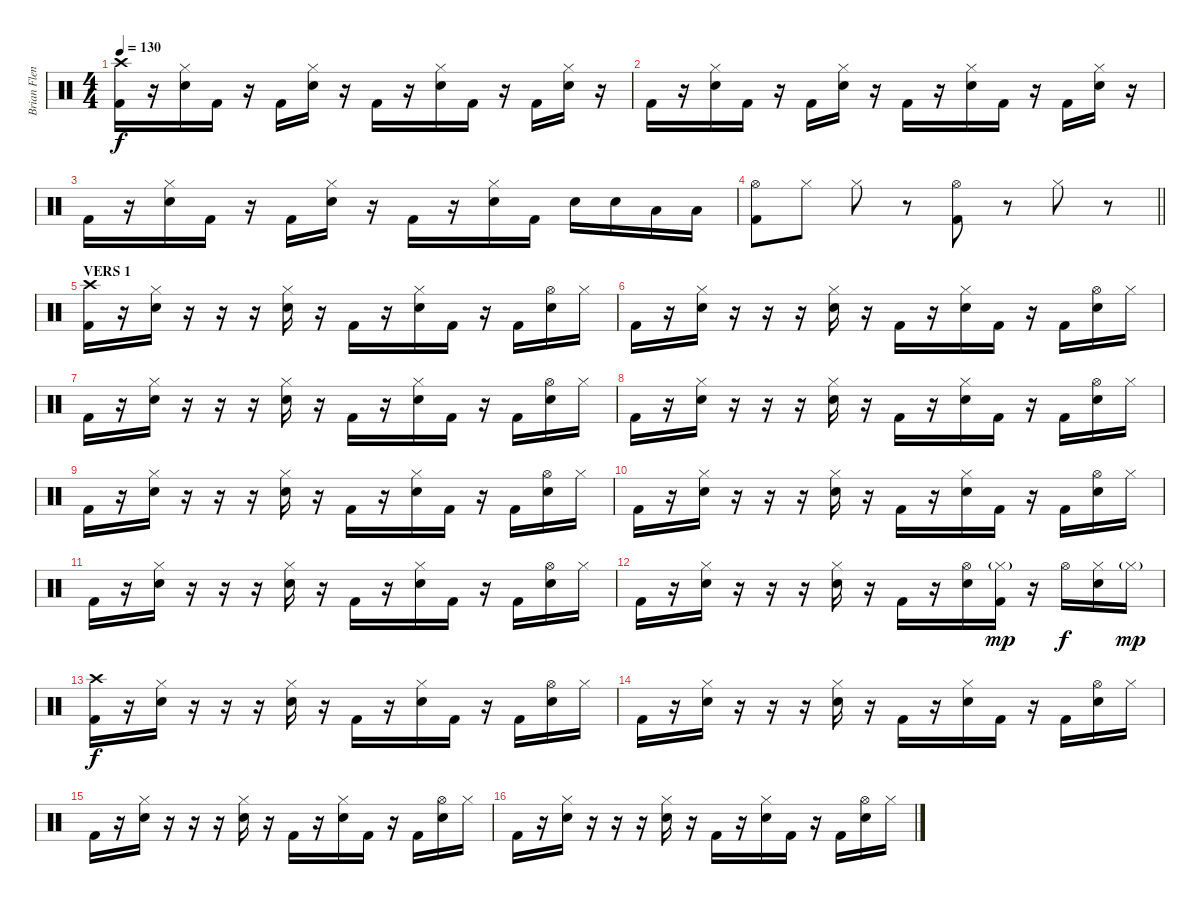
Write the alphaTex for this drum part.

\track ("Brian Flenniken" "Brian Flen") {instrument percussion}
\staff {score}
\articulation defaults
\ts (4 4)
\tempo 130
\clef neutral
\ks c
("Crash high (hit)" "Kick (hit) 2").16{dy f} r.16 ("Hi-Hat (closed)" "Snare (hit) 2").16 "Kick (hit) 2".16 r.16 "Kick (hit) 2".16 ("Hi-Hat (closed)" "Snare (hit) 2").16 r.16 "Kick (hit) 2".16 r.16 ("Hi-Hat (closed)" "Snare (hit) 2").16 "Kick (hit) 2".16 r.16 "Kick (hit) 2".16 ("Hi-Hat (closed)" "Snare (hit) 2").16 r.16 |
"Kick (hit) 2".16 r.16 ("Hi-Hat (closed)" "Snare (hit) 2").16 "Kick (hit) 2".16 r.16 "Kick (hit) 2".16 ("Hi-Hat (closed)" "Snare (hit) 2").16 r.16 "Kick (hit) 2".16 r.16 ("Hi-Hat (closed)" "Snare (hit) 2").16 "Kick (hit) 2".16 r.16 "Kick (hit) 2".16 ("Hi-Hat (closed)" "Snare (hit) 2").16 r.16 |
"Kick (hit) 2".16 r.16 ("Hi-Hat (closed)" "Snare (hit) 2").16 "Kick (hit) 2".16 r.16 "Kick (hit) 2".16 ("Hi-Hat (closed)" "Snare (hit) 2").16 r.16 "Kick (hit) 2".16 r.16 ("Hi-Hat (closed)" "Snare (hit) 2").16 "Kick (hit) 2".16 "Snare (hit) 2".16 "Snare (hit) 2".16 "Low Floor Tom (hit)".16 "Low Floor Tom (hit)".16 |
\barLineRight lightlight
("Hi-Hat (open)" "Kick (hit) 2").8 "Hi-Hat (closed)".8 "Hi-Hat (closed)".8 r.8 ("Hi-Hat (open)" "Kick (hit) 2").8 r.8 "Hi-Hat (closed)".8 r.8 |
\section ("" "VERS 1")
("Crash high (hit)" "Kick (hit) 2").16 r.16 ("Hi-Hat (closed)" "Snare (hit) 2").16 r.16 r.16 r.16 ("Hi-Hat (closed)" "Snare (hit) 2").16 r.16 "Kick (hit) 2".16 r.16 ("Hi-Hat (closed)" "Snare (hit) 2").16 "Kick (hit) 2".16 r.16 "Kick (hit) 2".16 ("Hi-Hat (open)" "Snare (hit) 2").16 "Hi-Hat (closed)".16 |
"Kick (hit) 2".16 r.16 ("Hi-Hat (closed)" "Snare (hit) 2").16 r.16 r.16 r.16 ("Hi-Hat (closed)" "Snare (hit) 2").16 r.16 "Kick (hit) 2".16 r.16 ("Hi-Hat (closed)" "Snare (hit) 2").16 "Kick (hit) 2".16 r.16 "Kick (hit) 2".16 ("Hi-Hat (open)" "Snare (hit) 2").16 "Hi-Hat (closed)".16 |
"Kick (hit) 2".16 r.16 ("Hi-Hat (closed)" "Snare (hit) 2").16 r.16 r.16 r.16 ("Hi-Hat (closed)" "Snare (hit) 2").16 r.16 "Kick (hit) 2".16 r.16 ("Hi-Hat (closed)" "Snare (hit) 2").16 "Kick (hit) 2".16 r.16 "Kick (hit) 2".16 ("Hi-Hat (open)" "Snare (hit) 2").16 "Hi-Hat (closed)".16 |
"Kick (hit) 2".16 r.16 ("Hi-Hat (closed)" "Snare (hit) 2").16 r.16 r.16 r.16 ("Hi-Hat (closed)" "Snare (hit) 2").16 r.16 "Kick (hit) 2".16 r.16 ("Hi-Hat (closed)" "Snare (hit) 2").16 "Kick (hit) 2".16 r.16 "Kick (hit) 2".16 ("Hi-Hat (open)" "Snare (hit) 2").16 "Hi-Hat (closed)".16 |
"Kick (hit) 2".16 r.16 ("Hi-Hat (closed)" "Snare (hit) 2").16 r.16 r.16 r.16 ("Hi-Hat (closed)" "Snare (hit) 2").16 r.16 "Kick (hit) 2".16 r.16 ("Hi-Hat (closed)" "Snare (hit) 2").16 "Kick (hit) 2".16 r.16 "Kick (hit) 2".16 ("Hi-Hat (open)" "Snare (hit) 2").16 "Hi-Hat (closed)".16 |
"Kick (hit) 2".16 r.16 ("Hi-Hat (closed)" "Snare (hit) 2").16 r.16 r.16 r.16 ("Hi-Hat (closed)" "Snare (hit) 2").16 r.16 "Kick (hit) 2".16 r.16 ("Hi-Hat (closed)" "Snare (hit) 2").16 "Kick (hit) 2".16 r.16 "Kick (hit) 2".16 ("Hi-Hat (open)" "Snare (hit) 2").16 "Hi-Hat (closed)".16 |
"Kick (hit) 2".16 r.16 ("Hi-Hat (closed)" "Snare (hit) 2").16 r.16 r.16 r.16 ("Hi-Hat (closed)" "Snare (hit) 2").16 r.16 "Kick (hit) 2".16 r.16 ("Hi-Hat (closed)" "Snare (hit) 2").16 "Kick (hit) 2".16 r.16 "Kick (hit) 2".16 ("Hi-Hat (open)" "Snare (hit) 2").16 "Hi-Hat (closed)".16 |
"Kick (hit) 2".16 r.16 ("Hi-Hat (closed)" "Snare (hit) 2").16 r.16 r.16 r.16 ("Hi-Hat (closed)" "Snare (hit) 2").16 r.16 "Kick (hit) 2".16 r.16 ("Hi-Hat (open)" "Snare (hit) 2").16 ("Hi-Hat (closed)"{g} "Kick (hit) 2").16{dy mp} r.16 "Hi-Hat (open)".16{dy f} ("Hi-Hat (closed)" "Snare (hit) 2").16 "Hi-Hat (closed)"{g}.16{dy mp} |
("Crash high (hit)" "Kick (hit) 2").16{dy f} r.16 ("Hi-Hat (closed)" "Snare (hit) 2").16 r.16 r.16 r.16 ("Hi-Hat (closed)" "Snare (hit) 2").16 r.16 "Kick (hit) 2".16 r.16 ("Hi-Hat (closed)" "Snare (hit) 2").16 "Kick (hit) 2".16 r.16 "Kick (hit) 2".16 ("Hi-Hat (open)" "Snare (hit) 2").16 "Hi-Hat (closed)".16 |
"Kick (hit) 2".16 r.16 ("Hi-Hat (closed)" "Snare (hit) 2").16 r.16 r.16 r.16 ("Hi-Hat (closed)" "Snare (hit) 2").16 r.16 "Kick (hit) 2".16 r.16 ("Hi-Hat (closed)" "Snare (hit) 2").16 "Kick (hit) 2".16 r.16 "Kick (hit) 2".16 ("Hi-Hat (open)" "Snare (hit) 2").16 "Hi-Hat (closed)".16 |
"Kick (hit) 2".16 r.16 ("Hi-Hat (closed)" "Snare (hit) 2").16 r.16 r.16 r.16 ("Hi-Hat (closed)" "Snare (hit) 2").16 r.16 "Kick (hit) 2".16 r.16 ("Hi-Hat (closed)" "Snare (hit) 2").16 "Kick (hit) 2".16 r.16 "Kick (hit) 2".16 ("Hi-Hat (open)" "Snare (hit) 2").16 "Hi-Hat (closed)".16 |
"Kick (hit) 2".16 r.16 ("Hi-Hat (closed)" "Snare (hit) 2").16 r.16 r.16 r.16 ("Hi-Hat (closed)" "Snare (hit) 2").16 r.16 "Kick (hit) 2".16 r.16 ("Hi-Hat (closed)" "Snare (hit) 2").16 "Kick (hit) 2".16 r.16 "Kick (hit) 2".16 ("Hi-Hat (open)" "Snare (hit) 2").16 "Hi-Hat (closed)".16
